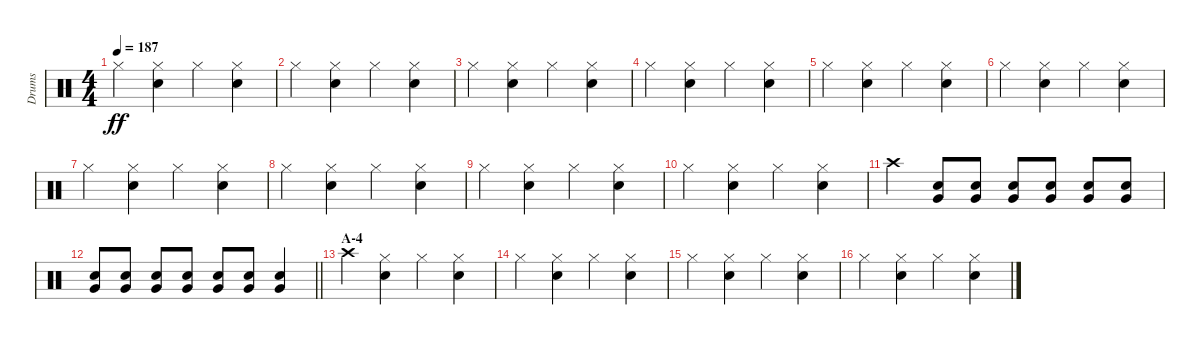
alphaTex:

\track ("Drums" "Drums") {instrument percussion}
\staff {score}
\articulation defaults
\ts (4 4)
\tempo 187
\clef neutral
\ks c "Hi-Hat (closed)".4{dy ff}
("Hi-Hat (closed)" "Snare (hit) 2").4 "Hi-Hat (closed)".4 ("Hi-Hat (closed)" "Snare (hit) 2").4 |
"Hi-Hat (closed)".4 ("Hi-Hat (closed)" "Snare (hit) 2").4 "Hi-Hat (closed)".4 ("Hi-Hat (closed)" "Snare (hit) 2").4 |
"Hi-Hat (closed)".4 ("Hi-Hat (closed)" "Snare (hit) 2").4 "Hi-Hat (closed)".4 ("Hi-Hat (closed)" "Snare (hit) 2").4 |
"Hi-Hat (closed)".4 ("Hi-Hat (closed)" "Snare (hit) 2").4 "Hi-Hat (closed)".4 ("Hi-Hat (closed)" "Snare (hit) 2").4 |
"Hi-Hat (closed)".4 ("Hi-Hat (closed)" "Snare (hit) 2").4 "Hi-Hat (closed)".4 ("Hi-Hat (closed)" "Snare (hit) 2").4 |
"Hi-Hat (closed)".4 ("Hi-Hat (closed)" "Snare (hit) 2").4 "Hi-Hat (closed)".4 ("Hi-Hat (closed)" "Snare (hit) 2").4 |
"Hi-Hat (closed)".4 ("Hi-Hat (closed)" "Snare (hit) 2").4 "Hi-Hat (closed)".4 ("Hi-Hat (closed)" "Snare (hit) 2").4 |
"Hi-Hat (closed)".4 ("Hi-Hat (closed)" "Snare (hit) 2").4 "Hi-Hat (closed)".4 ("Hi-Hat (closed)" "Snare (hit) 2").4 |
"Hi-Hat (closed)".4 ("Hi-Hat (closed)" "Snare (hit) 2").4 "Hi-Hat (closed)".4 ("Hi-Hat (closed)" "Snare (hit) 2").4 |
"Hi-Hat (closed)".4 ("Hi-Hat (closed)" "Snare (hit) 2").4 "Hi-Hat (closed)".4 ("Hi-Hat (closed)" "Snare (hit) 2").4 |
"Crash high (hit)".4 ("Snare (hit) 2" "Very Low Tom (hit)").8 ("Snare (hit) 2" "Very Low Tom (hit)").8 ("Snare (hit) 2" "Very Low Tom (hit)").8 ("Snare (hit) 2" "Very Low Tom (hit)").8 ("Snare (hit) 2" "Very Low Tom (hit)").8 ("Snare (hit) 2" "Very Low Tom (hit)").8 |
\barLineRight lightlight
("Snare (hit) 2" "Very Low Tom (hit)").8 ("Snare (hit) 2" "Very Low Tom (hit)").8 ("Snare (hit) 2" "Very Low Tom (hit)").8 ("Snare (hit) 2" "Very Low Tom (hit)").8 ("Snare (hit) 2" "Very Low Tom (hit)").8 ("Snare (hit) 2" "Very Low Tom (hit)").8 ("Very Low Tom (hit)" "Snare (hit) 2").4 |
\section ("" "A-4")
"Crash high (hit)".4 ("Hi-Hat (closed)" "Snare (hit) 2").4 "Hi-Hat (closed)".4 ("Hi-Hat (closed)" "Snare (hit) 2").4 |
"Hi-Hat (closed)".4 ("Hi-Hat (closed)" "Snare (hit) 2").4 "Hi-Hat (closed)".4 ("Hi-Hat (closed)" "Snare (hit) 2").4 |
"Hi-Hat (closed)".4 ("Hi-Hat (closed)" "Snare (hit) 2").4 "Hi-Hat (closed)".4 ("Hi-Hat (closed)" "Snare (hit) 2").4 |
"Hi-Hat (closed)".4 ("Hi-Hat (closed)" "Snare (hit) 2").4 "Hi-Hat (closed)".4 ("Hi-Hat (closed)" "Snare (hit) 2").4
